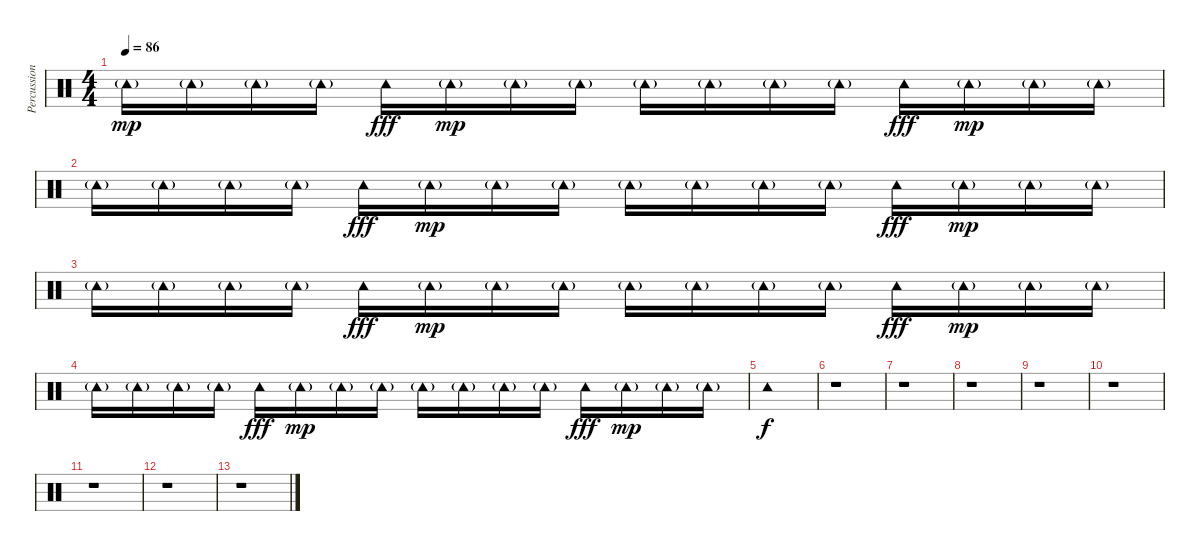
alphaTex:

\track ("Percussion" "Percussion") {instrument percussion}
\staff {score}
\articulation defaults
\ts (4 4)
\tempo 86
\clef neutral
\ks c "Tambourine (hit)"{g}.16{dy mp} "Tambourine (hit)"{g}.16 "Tambourine (hit)"{g}.16 "Tambourine (hit)"{g}.16 "Tambourine (hit)".16{dy fff} "Tambourine (hit)"{g}.16{dy mp} "Tambourine (hit)"{g}.16 "Tambourine (hit)"{g}.16 "Tambourine (hit)"{g}.16 "Tambourine (hit)"{g}.16 "Tambourine (hit)"{g}.16 "Tambourine (hit)"{g}.16 "Tambourine (hit)".16{dy fff} "Tambourine (hit)"{g}.16{dy mp} "Tambourine (hit)"{g}.16 "Tambourine (hit)"{g}.16
|
"Tambourine (hit)"{g}.16 "Tambourine (hit)"{g}.16 "Tambourine (hit)"{g}.16 "Tambourine (hit)"{g}.16 "Tambourine (hit)".16{dy fff} "Tambourine (hit)"{g}.16{dy mp} "Tambourine (hit)"{g}.16 "Tambourine (hit)"{g}.16 "Tambourine (hit)"{g}.16 "Tambourine (hit)"{g}.16 "Tambourine (hit)"{g}.16 "Tambourine (hit)"{g}.16 "Tambourine (hit)".16{dy fff} "Tambourine (hit)"{g}.16{dy mp} "Tambourine (hit)"{g}.16 "Tambourine (hit)"{g}.16 |
"Tambourine (hit)"{g}.16 "Tambourine (hit)"{g}.16 "Tambourine (hit)"{g}.16 "Tambourine (hit)"{g}.16 "Tambourine (hit)".16{dy fff} "Tambourine (hit)"{g}.16{dy mp} "Tambourine (hit)"{g}.16 "Tambourine (hit)"{g}.16 "Tambourine (hit)"{g}.16 "Tambourine (hit)"{g}.16 "Tambourine (hit)"{g}.16 "Tambourine (hit)"{g}.16 "Tambourine (hit)".16{dy fff} "Tambourine (hit)"{g}.16{dy mp} "Tambourine (hit)"{g}.16 "Tambourine (hit)"{g}.16 |
"Tambourine (hit)"{g}.16 "Tambourine (hit)"{g}.16 "Tambourine (hit)"{g}.16 "Tambourine (hit)"{g}.16 "Tambourine (hit)".16{dy fff} "Tambourine (hit)"{g}.16{dy mp} "Tambourine (hit)"{g}.16 "Tambourine (hit)"{g}.16 "Tambourine (hit)"{g}.16 "Tambourine (hit)"{g}.16 "Tambourine (hit)"{g}.16 "Tambourine (hit)"{g}.16 "Tambourine (hit)".16{dy fff} "Tambourine (hit)"{g}.16{dy mp} "Tambourine (hit)"{g}.16 "Tambourine (hit)"{g}.16 |
"Tambourine (hit)".1{dy f} |
r.1 |
r.1 |
r.1 |
r.1 |
r.1 |
r.1 |
r.1 |
r.1
